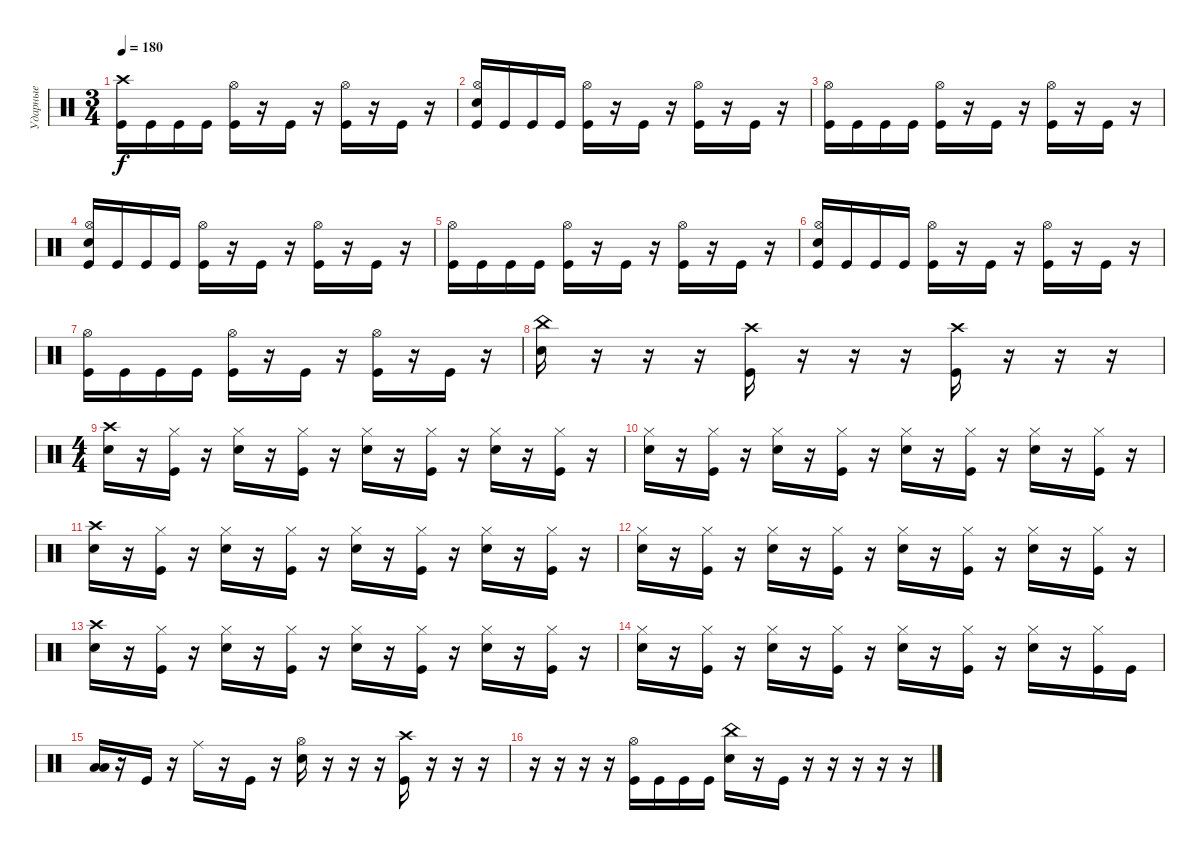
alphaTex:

\track ("Ударные" "Ударные") {instrument percussion}
\staff {score}
\articulation defaults
\ts (3 4)
\tempo 180
\clef neutral
\ks c
("Crash high (hit)" "Kick (hit)").16{dy f} "Kick (hit)".16 "Kick (hit)".16 "Kick (hit)".16 ("Hi-Hat (open)" "Kick (hit)").16 r.16 "Kick (hit)".16 r.16 ("Hi-Hat (open)" "Kick (hit)").16 r.16 "Kick (hit)".16 r.16 |
("Hi-Hat (open)" "Electric Snare (hit)" "Kick (hit)").16 "Kick (hit)".16 "Kick (hit)".16 "Kick (hit)".16 ("Hi-Hat (open)" "Kick (hit)").16 r.16 "Kick (hit)".16 r.16 ("Hi-Hat (open)" "Kick (hit)").16 r.16 "Kick (hit)".16 r.16 |
("Hi-Hat (open)" "Kick (hit)").16 "Kick (hit)".16 "Kick (hit)".16 "Kick (hit)".16 ("Hi-Hat (open)" "Kick (hit)").16 r.16 "Kick (hit)".16 r.16 ("Hi-Hat (open)" "Kick (hit)").16 r.16 "Kick (hit)".16 r.16 |
("Hi-Hat (open)" "Electric Snare (hit)" "Kick (hit)").16 "Kick (hit)".16 "Kick (hit)".16 "Kick (hit)".16 ("Hi-Hat (open)" "Kick (hit)").16 r.16 "Kick (hit)".16 r.16 ("Hi-Hat (open)" "Kick (hit)").16 r.16 "Kick (hit)".16 r.16 |
("Hi-Hat (open)" "Kick (hit)").16 "Kick (hit)".16 "Kick (hit)".16 "Kick (hit)".16 ("Hi-Hat (open)" "Kick (hit)").16 r.16 "Kick (hit)".16 r.16 ("Hi-Hat (open)" "Kick (hit)").16 r.16 "Kick (hit)".16 r.16 |
("Hi-Hat (open)" "Electric Snare (hit)" "Kick (hit)").16 "Kick (hit)".16 "Kick (hit)".16 "Kick (hit)".16 ("Hi-Hat (open)" "Kick (hit)").16 r.16 "Kick (hit)".16 r.16 ("Hi-Hat (open)" "Kick (hit)").16 r.16 "Kick (hit)".16 r.16 |
("Hi-Hat (open)" "Kick (hit)").16 "Kick (hit)".16 "Kick (hit)".16 "Kick (hit)".16 ("Hi-Hat (open)" "Kick (hit)").16 r.16 "Kick (hit)".16 r.16 ("Hi-Hat (open)" "Kick (hit)").16 r.16 "Kick (hit)".16 r.16 |
("China (hit)" "Electric Snare (hit)").16 r.16 r.16 r.16 ("Crash high (hit)" "Kick (hit)").16 r.16 r.16 r.16 ("Crash high (hit)" "Kick (hit)").16 r.16 r.16 r.16 |
\ts (4 4)
("Crash high (hit)" "Electric Snare (hit)").16 r.16 ("Hi-Hat (closed)" "Kick (hit)").16 r.16 ("Hi-Hat (closed)" "Electric Snare (hit)").16 r.16 ("Hi-Hat (closed)" "Kick (hit)").16 r.16 ("Hi-Hat (closed)" "Electric Snare (hit)").16 r.16 ("Hi-Hat (closed)" "Kick (hit)").16 r.16 ("Hi-Hat (closed)" "Electric Snare (hit)").16 r.16 ("Hi-Hat (closed)" "Kick (hit)").16 r.16 |
("Hi-Hat (closed)" "Electric Snare (hit)").16 r.16 ("Hi-Hat (closed)" "Kick (hit)").16 r.16 ("Hi-Hat (closed)" "Electric Snare (hit)").16 r.16 ("Hi-Hat (closed)" "Kick (hit)").16 r.16 ("Hi-Hat (closed)" "Electric Snare (hit)").16 r.16 ("Hi-Hat (closed)" "Kick (hit)").16 r.16 ("Hi-Hat (closed)" "Electric Snare (hit)").16 r.16 ("Hi-Hat (closed)" "Kick (hit)").16 r.16 |
("Crash high (hit)" "Electric Snare (hit)").16 r.16 ("Hi-Hat (closed)" "Kick (hit)").16 r.16 ("Hi-Hat (closed)" "Electric Snare (hit)").16 r.16 ("Hi-Hat (closed)" "Kick (hit)").16 r.16 ("Hi-Hat (closed)" "Electric Snare (hit)").16 r.16 ("Hi-Hat (closed)" "Kick (hit)").16 r.16 ("Hi-Hat (closed)" "Electric Snare (hit)").16 r.16 ("Hi-Hat (closed)" "Kick (hit)").16 r.16 |
("Hi-Hat (closed)" "Electric Snare (hit)").16 r.16 ("Hi-Hat (closed)" "Kick (hit)").16 r.16 ("Hi-Hat (closed)" "Electric Snare (hit)").16 r.16 ("Hi-Hat (closed)" "Kick (hit)").16 r.16 ("Hi-Hat (closed)" "Electric Snare (hit)").16 r.16 ("Hi-Hat (closed)" "Kick (hit)").16 r.16 ("Hi-Hat (closed)" "Electric Snare (hit)").16 r.16 ("Hi-Hat (closed)" "Kick (hit)").16 r.16 |
("Crash high (hit)" "Electric Snare (hit)").16 r.16 ("Hi-Hat (closed)" "Kick (hit)").16 r.16 ("Hi-Hat (closed)" "Electric Snare (hit)").16 r.16 ("Hi-Hat (closed)" "Kick (hit)").16 r.16 ("Hi-Hat (closed)" "Electric Snare (hit)").16 r.16 ("Hi-Hat (closed)" "Kick (hit)").16 r.16 ("Hi-Hat (closed)" "Electric Snare (hit)").16 r.16 ("Hi-Hat (closed)" "Kick (hit)").16 r.16 |
("Hi-Hat (closed)" "Electric Snare (hit)").16 r.16 ("Hi-Hat (closed)" "Kick (hit)").16 r.16 ("Hi-Hat (closed)" "Electric Snare (hit)").16 r.16 ("Hi-Hat (closed)" "Kick (hit)").16 r.16 ("Hi-Hat (closed)" "Electric Snare (hit)").16 r.16 ("Hi-Hat (closed)" "Kick (hit)").16 r.16 ("Hi-Hat (closed)" "Electric Snare (hit)").16 r.16 ("Hi-Hat (closed)" "Kick (hit)").16 "Kick (hit)".16 |
("Low Floor Tom (hit)" "Low Tom (hit)").16 r.16 "Kick (hit)".16 r.16 "Ride (middle)".16 r.16 "Kick (hit)".16 r.16 ("Hi-Hat (open)" "Electric Snare (hit)").16 r.16 r.16 r.16 ("Kick (hit)" "Crash high (hit)").16 r.16 r.16 r.16 |
r.16 r.16 r.16 r.16 ("Hi-Hat (open)" "Kick (hit)").16 "Kick (hit)".16 "Kick (hit)".16 "Kick (hit)".16 ("China (hit)" "Electric Snare (hit)").16 r.16 "Kick (hit)".16 r.16 r.16 r.16 r.16 r.16
